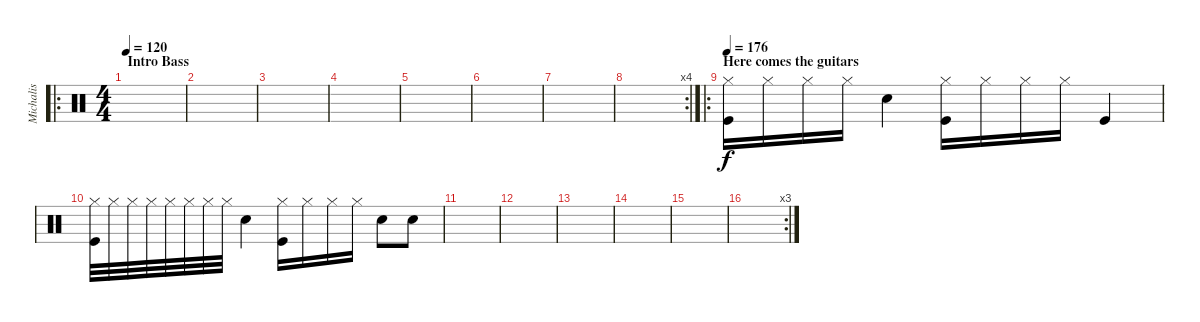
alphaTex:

\track ("Michalis" "Michalis") {instrument percussion}
\staff {score}
\articulation defaults
\ro
\ts (4 4)
\section ("" "Intro Bass")
\tempo 120
\tempo 144
\tempo 120
\clef neutral
\ks c
|
|
|
|
|
|
|
\rc 4
|
\ro
\section ("" "Here comes the guitars")
\tempo 176
("Hi-Hat (closed)" "Kick (hit)").16 "Hi-Hat (closed)".16 "Hi-Hat (closed)".16 "Hi-Hat (closed)".16 "Snare (hit) 2".4 ("Hi-Hat (closed)" "Kick (hit)").16 "Hi-Hat (closed)".16 "Hi-Hat (closed)".16 "Hi-Hat (closed)".16 "Kick (hit)".4 |
("Hi-Hat (closed)" "Kick (hit)").32 "Hi-Hat (closed)".32 "Hi-Hat (closed)".32 "Hi-Hat (closed)".32 "Hi-Hat (closed)".32 "Hi-Hat (closed)".32 "Hi-Hat (closed)".32 "Hi-Hat (closed)".32 "Snare (hit) 2".4 ("Hi-Hat (closed)" "Kick (hit)").16 "Hi-Hat (closed)".16 "Hi-Hat (closed)".16 "Hi-Hat (closed)".16 "Snare (hit) 2".8 "Snare (hit) 2".8 |
|
|
|
|
|
\rc 3
